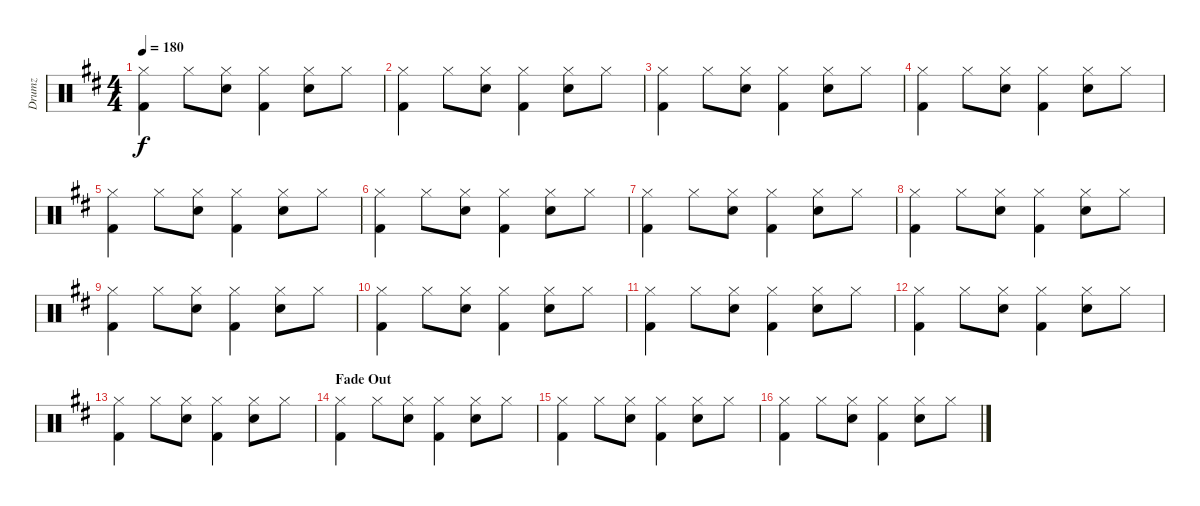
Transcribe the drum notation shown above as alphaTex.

\track ("Drumz" "Drumz") {instrument percussion}
\staff {score}
\articulation defaults
\ts (4 4)
\tempo 180
\clef neutral
\ks d
("Hi-Hat (closed)" "Kick (hit) 2").4{dy f} "Hi-Hat (closed)".8 ("Hi-Hat (closed)" "Snare (hit) 2").8 ("Hi-Hat (closed)" "Kick (hit) 2").4 ("Hi-Hat (closed)" "Snare (hit) 2").8 "Hi-Hat (closed)".8 |
("Hi-Hat (closed)" "Kick (hit) 2").4 "Hi-Hat (closed)".8 ("Hi-Hat (closed)" "Snare (hit) 2").8 ("Hi-Hat (closed)" "Kick (hit) 2").4 ("Hi-Hat (closed)" "Snare (hit) 2").8 "Hi-Hat (closed)".8 |
("Hi-Hat (closed)" "Kick (hit) 2").4 "Hi-Hat (closed)".8 ("Hi-Hat (closed)" "Snare (hit) 2").8 ("Hi-Hat (closed)" "Kick (hit) 2").4 ("Hi-Hat (closed)" "Snare (hit) 2").8 "Hi-Hat (closed)".8 |
("Hi-Hat (closed)" "Kick (hit) 2").4 "Hi-Hat (closed)".8 ("Hi-Hat (closed)" "Snare (hit) 2").8 ("Hi-Hat (closed)" "Kick (hit) 2").4 ("Hi-Hat (closed)" "Snare (hit) 2").8 "Hi-Hat (closed)".8 |
("Hi-Hat (closed)" "Kick (hit) 2").4 "Hi-Hat (closed)".8 ("Hi-Hat (closed)" "Snare (hit) 2").8 ("Hi-Hat (closed)" "Kick (hit) 2").4 ("Hi-Hat (closed)" "Snare (hit) 2").8 "Hi-Hat (closed)".8 |
("Hi-Hat (closed)" "Kick (hit) 2").4 "Hi-Hat (closed)".8 ("Hi-Hat (closed)" "Snare (hit) 2").8 ("Hi-Hat (closed)" "Kick (hit) 2").4 ("Hi-Hat (closed)" "Snare (hit) 2").8 "Hi-Hat (closed)".8 |
("Hi-Hat (closed)" "Kick (hit) 2").4 "Hi-Hat (closed)".8 ("Hi-Hat (closed)" "Snare (hit) 2").8 ("Hi-Hat (closed)" "Kick (hit) 2").4 ("Hi-Hat (closed)" "Snare (hit) 2").8 "Hi-Hat (closed)".8 |
("Hi-Hat (closed)" "Kick (hit) 2").4 "Hi-Hat (closed)".8 ("Hi-Hat (closed)" "Snare (hit) 2").8 ("Hi-Hat (closed)" "Kick (hit) 2").4 ("Hi-Hat (closed)" "Snare (hit) 2").8 "Hi-Hat (closed)".8 |
("Hi-Hat (closed)" "Kick (hit) 2").4 "Hi-Hat (closed)".8 ("Hi-Hat (closed)" "Snare (hit) 2").8 ("Hi-Hat (closed)" "Kick (hit) 2").4 ("Hi-Hat (closed)" "Snare (hit) 2").8 "Hi-Hat (closed)".8 |
("Hi-Hat (closed)" "Kick (hit) 2").4 "Hi-Hat (closed)".8 ("Hi-Hat (closed)" "Snare (hit) 2").8 ("Hi-Hat (closed)" "Kick (hit) 2").4 ("Hi-Hat (closed)" "Snare (hit) 2").8 "Hi-Hat (closed)".8 |
("Hi-Hat (closed)" "Kick (hit) 2").4 "Hi-Hat (closed)".8 ("Hi-Hat (closed)" "Snare (hit) 2").8 ("Hi-Hat (closed)" "Kick (hit) 2").4 ("Hi-Hat (closed)" "Snare (hit) 2").8 "Hi-Hat (closed)".8 |
("Hi-Hat (closed)" "Kick (hit) 2").4 "Hi-Hat (closed)".8 ("Hi-Hat (closed)" "Snare (hit) 2").8 ("Hi-Hat (closed)" "Kick (hit) 2").4 ("Hi-Hat (closed)" "Snare (hit) 2").8 "Hi-Hat (closed)".8 |
("Hi-Hat (closed)" "Kick (hit) 2").4 "Hi-Hat (closed)".8 ("Hi-Hat (closed)" "Snare (hit) 2").8 ("Hi-Hat (closed)" "Kick (hit) 2").4 ("Hi-Hat (closed)" "Snare (hit) 2").8 "Hi-Hat (closed)".8 |
\section ("" "Fade Out")
("Hi-Hat (closed)" "Kick (hit) 2").4 "Hi-Hat (closed)".8 ("Hi-Hat (closed)" "Snare (hit) 2").8 ("Hi-Hat (closed)" "Kick (hit) 2").4 ("Hi-Hat (closed)" "Snare (hit) 2").8 "Hi-Hat (closed)".8 |
("Hi-Hat (closed)" "Kick (hit) 2").4 "Hi-Hat (closed)".8 ("Hi-Hat (closed)" "Snare (hit) 2").8 ("Hi-Hat (closed)" "Kick (hit) 2").4 ("Hi-Hat (closed)" "Snare (hit) 2").8 "Hi-Hat (closed)".8 |
("Hi-Hat (closed)" "Kick (hit) 2").4 "Hi-Hat (closed)".8 ("Hi-Hat (closed)" "Snare (hit) 2").8 ("Hi-Hat (closed)" "Kick (hit) 2").4 ("Hi-Hat (closed)" "Snare (hit) 2").8 "Hi-Hat (closed)".8
